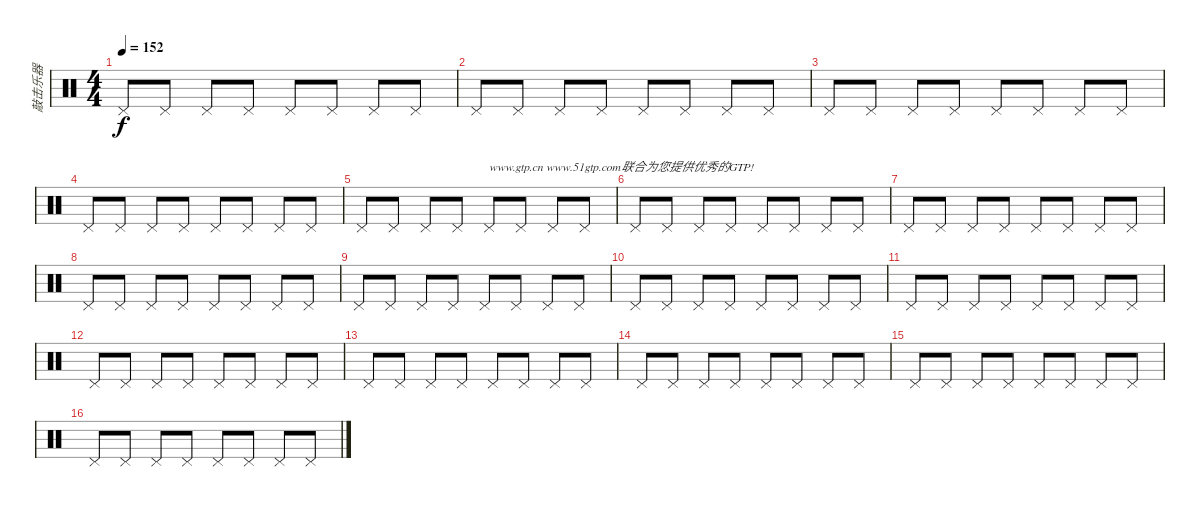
\track ("敲击乐器" "敲击乐器") {instrument percussion}
\staff {score}
\articulation defaults
\ts (4 4)
\tempo 152
\clef neutral
\ks c "Pedal Hi-Hat (hit)".8{dy f} "Pedal Hi-Hat (hit)".8 "Pedal Hi-Hat (hit)".8 "Pedal Hi-Hat (hit)".8 "Pedal Hi-Hat (hit)".8 "Pedal Hi-Hat (hit)".8 "Pedal Hi-Hat (hit)".8 "Pedal Hi-Hat (hit)".8
|
"Pedal Hi-Hat (hit)".8 "Pedal Hi-Hat (hit)".8 "Pedal Hi-Hat (hit)".8 "Pedal Hi-Hat (hit)".8 "Pedal Hi-Hat (hit)".8 "Pedal Hi-Hat (hit)".8 "Pedal Hi-Hat (hit)".8 "Pedal Hi-Hat (hit)".8 |
"Pedal Hi-Hat (hit)".8 "Pedal Hi-Hat (hit)".8 "Pedal Hi-Hat (hit)".8 "Pedal Hi-Hat (hit)".8 "Pedal Hi-Hat (hit)".8 "Pedal Hi-Hat (hit)".8 "Pedal Hi-Hat (hit)".8 "Pedal Hi-Hat (hit)".8 |
"Pedal Hi-Hat (hit)".8 "Pedal Hi-Hat (hit)".8 "Pedal Hi-Hat (hit)".8 "Pedal Hi-Hat (hit)".8 "Pedal Hi-Hat (hit)".8 "Pedal Hi-Hat (hit)".8 "Pedal Hi-Hat (hit)".8 "Pedal Hi-Hat (hit)".8 |
"Pedal Hi-Hat (hit)".8 "Pedal Hi-Hat (hit)".8 "Pedal Hi-Hat (hit)".8 "Pedal Hi-Hat (hit)".8 "Pedal Hi-Hat (hit)".8{txt "www.gtp.cn www.51gtp.com联合为您提供优秀的GTP!"} "Pedal Hi-Hat (hit)".8 "Pedal Hi-Hat (hit)".8 "Pedal Hi-Hat (hit)".8 |
"Pedal Hi-Hat (hit)".8 "Pedal Hi-Hat (hit)".8 "Pedal Hi-Hat (hit)".8 "Pedal Hi-Hat (hit)".8 "Pedal Hi-Hat (hit)".8 "Pedal Hi-Hat (hit)".8 "Pedal Hi-Hat (hit)".8 "Pedal Hi-Hat (hit)".8 |
"Pedal Hi-Hat (hit)".8 "Pedal Hi-Hat (hit)".8 "Pedal Hi-Hat (hit)".8 "Pedal Hi-Hat (hit)".8 "Pedal Hi-Hat (hit)".8 "Pedal Hi-Hat (hit)".8 "Pedal Hi-Hat (hit)".8 "Pedal Hi-Hat (hit)".8 |
"Pedal Hi-Hat (hit)".8 "Pedal Hi-Hat (hit)".8 "Pedal Hi-Hat (hit)".8 "Pedal Hi-Hat (hit)".8 "Pedal Hi-Hat (hit)".8 "Pedal Hi-Hat (hit)".8 "Pedal Hi-Hat (hit)".8 "Pedal Hi-Hat (hit)".8 |
"Pedal Hi-Hat (hit)".8 "Pedal Hi-Hat (hit)".8 "Pedal Hi-Hat (hit)".8 "Pedal Hi-Hat (hit)".8 "Pedal Hi-Hat (hit)".8 "Pedal Hi-Hat (hit)".8 "Pedal Hi-Hat (hit)".8 "Pedal Hi-Hat (hit)".8 |
"Pedal Hi-Hat (hit)".8 "Pedal Hi-Hat (hit)".8 "Pedal Hi-Hat (hit)".8 "Pedal Hi-Hat (hit)".8 "Pedal Hi-Hat (hit)".8 "Pedal Hi-Hat (hit)".8 "Pedal Hi-Hat (hit)".8 "Pedal Hi-Hat (hit)".8 |
"Pedal Hi-Hat (hit)".8 "Pedal Hi-Hat (hit)".8 "Pedal Hi-Hat (hit)".8 "Pedal Hi-Hat (hit)".8 "Pedal Hi-Hat (hit)".8 "Pedal Hi-Hat (hit)".8 "Pedal Hi-Hat (hit)".8 "Pedal Hi-Hat (hit)".8 |
"Pedal Hi-Hat (hit)".8 "Pedal Hi-Hat (hit)".8 "Pedal Hi-Hat (hit)".8 "Pedal Hi-Hat (hit)".8 "Pedal Hi-Hat (hit)".8 "Pedal Hi-Hat (hit)".8 "Pedal Hi-Hat (hit)".8 "Pedal Hi-Hat (hit)".8 |
"Pedal Hi-Hat (hit)".8 "Pedal Hi-Hat (hit)".8 "Pedal Hi-Hat (hit)".8 "Pedal Hi-Hat (hit)".8 "Pedal Hi-Hat (hit)".8 "Pedal Hi-Hat (hit)".8 "Pedal Hi-Hat (hit)".8 "Pedal Hi-Hat (hit)".8 |
"Pedal Hi-Hat (hit)".8 "Pedal Hi-Hat (hit)".8 "Pedal Hi-Hat (hit)".8 "Pedal Hi-Hat (hit)".8 "Pedal Hi-Hat (hit)".8 "Pedal Hi-Hat (hit)".8 "Pedal Hi-Hat (hit)".8 "Pedal Hi-Hat (hit)".8 |
"Pedal Hi-Hat (hit)".8 "Pedal Hi-Hat (hit)".8 "Pedal Hi-Hat (hit)".8 "Pedal Hi-Hat (hit)".8 "Pedal Hi-Hat (hit)".8 "Pedal Hi-Hat (hit)".8 "Pedal Hi-Hat (hit)".8 "Pedal Hi-Hat (hit)".8 |
"Pedal Hi-Hat (hit)".8 "Pedal Hi-Hat (hit)".8 "Pedal Hi-Hat (hit)".8 "Pedal Hi-Hat (hit)".8 "Pedal Hi-Hat (hit)".8 "Pedal Hi-Hat (hit)".8 "Pedal Hi-Hat (hit)".8 "Pedal Hi-Hat (hit)".8
